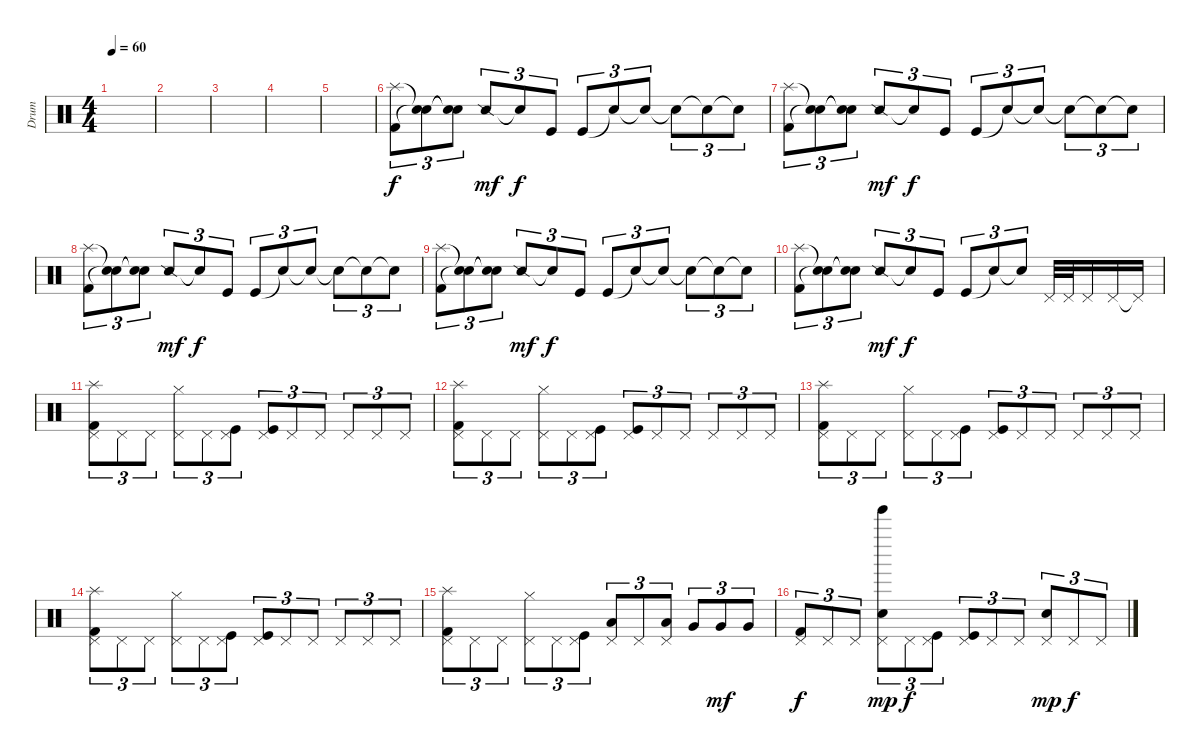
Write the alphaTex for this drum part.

\track ("Drum" "Drum") {instrument percussion}
\staff {score}
\articulation defaults
\ts (4 4)
\tempo 60
\clef neutral
\ks c
|
|
|
|
|
("Splash (hit)" "Kick (hit) 2").8{tu (3 2)} ("Snare (hit)"{t} "Snare (hit)"{t}).8{tu (3 2)} ("Snare (hit)"{t} "Snare (hit)"{t}).8{tu (3 2)} "Snare (side stick) 2".8{tu (3 2) dy mf} "Snare (hit)"{t}.8{tu (3 2) dy f} "Kick (hit)".8{tu (3 2)} "Kick (hit)".8{tu (3 2)} "Snare (hit)"{t}.8{tu (3 2)} "Snare (hit)"{t}.8{tu (3 2)} "Snare (hit)"{t}.8{tu (3 2)} "Snare (hit)"{t}.8{tu (3 2)} "Snare (hit)"{t}.8{tu (3 2)} |
("Splash (hit)" "Kick (hit) 2").8{tu (3 2)} ("Snare (hit)"{t} "Snare (hit)"{t}).8{tu (3 2)} ("Snare (hit)"{t} "Snare (hit)"{t}).8{tu (3 2)} "Snare (side stick) 2".8{tu (3 2) dy mf} "Snare (hit)"{t}.8{tu (3 2) dy f} "Kick (hit)".8{tu (3 2)} "Kick (hit)".8{tu (3 2)} "Snare (hit)"{t}.8{tu (3 2)} "Snare (hit)"{t}.8{tu (3 2)} "Snare (hit)"{t}.8{tu (3 2)} "Snare (hit)"{t}.8{tu (3 2)} "Snare (hit)"{t}.8{tu (3 2)} |
("Splash (hit)" "Kick (hit) 2").8{tu (3 2)} ("Snare (hit)"{t} "Snare (hit)"{t}).8{tu (3 2)} ("Snare (hit)"{t} "Snare (hit)"{t}).8{tu (3 2)} "Snare (side stick) 2".8{tu (3 2) dy mf} "Snare (hit)"{t}.8{tu (3 2) dy f} "Kick (hit)".8{tu (3 2)} "Kick (hit)".8{tu (3 2)} "Snare (hit)"{t}.8{tu (3 2)} "Snare (hit)"{t}.8{tu (3 2)} "Snare (hit)"{t}.8{tu (3 2)} "Snare (hit)"{t}.8{tu (3 2)} "Snare (hit)"{t}.8{tu (3 2)} |
("Splash (hit)" "Kick (hit) 2").8{tu (3 2)} ("Snare (hit)"{t} "Snare (hit)"{t}).8{tu (3 2)} ("Snare (hit)"{t} "Snare (hit)"{t}).8{tu (3 2)} "Snare (side stick) 2".8{tu (3 2) dy mf} "Snare (hit)"{t}.8{tu (3 2) dy f} "Kick (hit)".8{tu (3 2)} "Kick (hit)".8{tu (3 2)} "Snare (hit)"{t}.8{tu (3 2)} "Snare (hit)"{t}.8{tu (3 2)} "Snare (hit)"{t}.8{tu (3 2)} "Snare (hit)"{t}.8{tu (3 2)} "Snare (hit)"{t}.8{tu (3 2)} |
("Splash (hit)" "Kick (hit) 2").8{tu (3 2)} ("Snare (hit)"{t} "Snare (hit)"{t}).8{tu (3 2)} ("Snare (hit)"{t} "Snare (hit)"{t}).8{tu (3 2)} "Snare (side stick) 2".8{tu (3 2) dy mf} "Snare (hit)"{t}.8{tu (3 2) dy f} "Kick (hit)".8{tu (3 2)} "Kick (hit)".8{tu (3 2)} "Snare (hit)"{t}.8{tu (3 2)} "Snare (hit)"{t}.8{tu (3 2)} "Pedal Hi-Hat (hit)".32 "Pedal Hi-Hat (hit)".32 "Pedal Hi-Hat (hit)".16 "Pedal Hi-Hat (hit)".16 "Pedal Hi-Hat (hit)"{t}.16 |
("Splash (hit)" "Kick (hit) 2" "Pedal Hi-Hat (hit)").8{tu (3 2)} "Pedal Hi-Hat (hit)".8{tu (3 2)} "Pedal Hi-Hat (hit)".8{tu (3 2)} ("Hi-Hat (closed)" "Pedal Hi-Hat (hit)").8{tu (3 2)} "Pedal Hi-Hat (hit)".8{tu (3 2)} ("Kick (hit)" "Pedal Hi-Hat (hit)").8{tu (3 2)} ("Kick (hit)" "Pedal Hi-Hat (hit)").8{tu (3 2)} "Pedal Hi-Hat (hit)".8{tu (3 2)} "Pedal Hi-Hat (hit)".8{tu (3 2)} "Pedal Hi-Hat (hit)".8{tu (3 2)} "Pedal Hi-Hat (hit)".8{tu (3 2)} "Pedal Hi-Hat (hit)".8{tu (3 2)} |
("Splash (hit)" "Kick (hit) 2" "Pedal Hi-Hat (hit)").8{tu (3 2)} "Pedal Hi-Hat (hit)".8{tu (3 2)} "Pedal Hi-Hat (hit)".8{tu (3 2)} ("Hi-Hat (closed)" "Pedal Hi-Hat (hit)").8{tu (3 2)} "Pedal Hi-Hat (hit)".8{tu (3 2)} ("Kick (hit)" "Pedal Hi-Hat (hit)").8{tu (3 2)} ("Kick (hit)" "Pedal Hi-Hat (hit)").8{tu (3 2)} "Pedal Hi-Hat (hit)".8{tu (3 2)} "Pedal Hi-Hat (hit)".8{tu (3 2)} "Pedal Hi-Hat (hit)".8{tu (3 2)} "Pedal Hi-Hat (hit)".8{tu (3 2)} "Pedal Hi-Hat (hit)".8{tu (3 2)} |
("Splash (hit)" "Kick (hit) 2" "Pedal Hi-Hat (hit)").8{tu (3 2)} "Pedal Hi-Hat (hit)".8{tu (3 2)} "Pedal Hi-Hat (hit)".8{tu (3 2)} ("Hi-Hat (closed)" "Pedal Hi-Hat (hit)").8{tu (3 2)} "Pedal Hi-Hat (hit)".8{tu (3 2)} ("Kick (hit)" "Pedal Hi-Hat (hit)").8{tu (3 2)} ("Kick (hit)" "Pedal Hi-Hat (hit)").8{tu (3 2)} "Pedal Hi-Hat (hit)".8{tu (3 2)} "Pedal Hi-Hat (hit)".8{tu (3 2)} "Pedal Hi-Hat (hit)".8{tu (3 2)} "Pedal Hi-Hat (hit)".8{tu (3 2)} "Pedal Hi-Hat (hit)".8{tu (3 2)} |
("Splash (hit)" "Kick (hit) 2" "Pedal Hi-Hat (hit)").8{tu (3 2)} "Pedal Hi-Hat (hit)".8{tu (3 2)} "Pedal Hi-Hat (hit)".8{tu (3 2)} ("Hi-Hat (closed)" "Pedal Hi-Hat (hit)").8{tu (3 2)} "Pedal Hi-Hat (hit)".8{tu (3 2)} ("Kick (hit)" "Pedal Hi-Hat (hit)").8{tu (3 2)} ("Kick (hit)" "Pedal Hi-Hat (hit)").8{tu (3 2)} "Pedal Hi-Hat (hit)".8{tu (3 2)} "Pedal Hi-Hat (hit)".8{tu (3 2)} "Pedal Hi-Hat (hit)".8{tu (3 2)} "Pedal Hi-Hat (hit)".8{tu (3 2)} "Pedal Hi-Hat (hit)".8{tu (3 2)} |
("Splash (hit)" "Kick (hit) 2" "Pedal Hi-Hat (hit)").8{tu (3 2)} "Pedal Hi-Hat (hit)".8{tu (3 2)} "Pedal Hi-Hat (hit)".8{tu (3 2)} ("Hi-Hat (closed)" "Pedal Hi-Hat (hit)").8{tu (3 2)} "Pedal Hi-Hat (hit)".8{tu (3 2)} ("Kick (hit)" "Pedal Hi-Hat (hit)").8{tu (3 2)} ("Low Floor Tom (hit)" "Pedal Hi-Hat (hit)").8{tu (3 2)} "Pedal Hi-Hat (hit)".8{tu (3 2)} ("Low Floor Tom (hit)" "Pedal Hi-Hat (hit)").8{tu (3 2)} "Very Low Tom (hit)".8{tu (3 2)} "Very Low Tom (hit)".8{tu (3 2) dy mf} "Very Low Tom (hit)".8{tu (3 2)} |
("Kick (hit) 2" "Pedal Hi-Hat (hit)").8{tu (3 2) dy f} "Pedal Hi-Hat (hit)".8{tu (3 2)} "Pedal Hi-Hat (hit)".8{tu (3 2)} ("Snare (hit) 2" "Tinkle Bell (hit)" "Pedal Hi-Hat (hit)").8{tu (3 2) dy mp} "Pedal Hi-Hat (hit)".8{tu (3 2) dy f} ("Kick (hit)" "Pedal Hi-Hat (hit)").8{tu (3 2)} ("Kick (hit)" "Pedal Hi-Hat (hit)").8{tu (3 2)} "Pedal Hi-Hat (hit)".8{tu (3 2)} "Pedal Hi-Hat (hit)".8{tu (3 2)} ("Snare (hit) 2" "Pedal Hi-Hat (hit)").8{tu (3 2) dy mp} "Pedal Hi-Hat (hit)".8{tu (3 2) dy f} "Pedal Hi-Hat (hit)".8{tu (3 2)}
